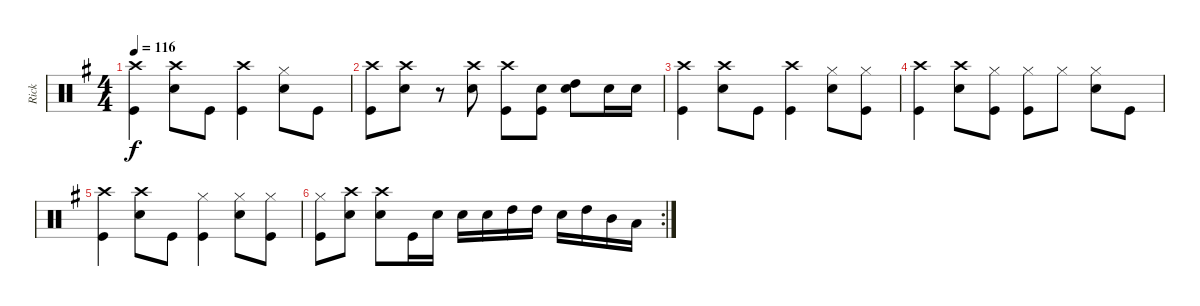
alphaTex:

\track ("Rick" "Rick") {instrument percussion}
\staff {score}
\articulation defaults
\ts (4 4)
\tempo 116
\clef neutral
\ks g
("Crash high (hit)" "Kick (hit)").4{dy f} ("Crash high (hit)" "Snare (hit) 2").8 "Kick (hit)".8 ("Crash high (hit)" "Kick (hit)").4 ("Hi-Hat (closed)" "Snare (hit) 2").8 "Kick (hit)".8 |
("Crash high (hit)" "Kick (hit)").8 ("Crash high (hit)" "Snare (hit) 2").8 r.8 ("Crash high (hit)" "Snare (hit) 2").8 ("Crash high (hit)" "Kick (hit)").8 ("Snare (hit) 2" "Kick (hit)").8 ("High Tom (hit)" "Snare (hit) 2").8 "Snare (hit) 2".16 "Snare (hit) 2".16 |
("Crash high (hit)" "Kick (hit)").4 ("Crash high (hit)" "Snare (hit) 2").8 "Kick (hit)".8 ("Crash high (hit)" "Kick (hit)").4 ("Hi-Hat (closed)" "Snare (hit) 2").8 ("Hi-Hat (closed)" "Kick (hit)").8 |
("Crash high (hit)" "Kick (hit)").4 ("Crash high (hit)" "Snare (hit) 2").8 ("Hi-Hat (closed)" "Kick (hit)").8 ("Hi-Hat (closed)" "Kick (hit)").8 "Hi-Hat (closed)".8 ("Hi-Hat (closed)" "Snare (hit) 2").8 "Kick (hit)".8 |
("Crash high (hit)" "Kick (hit)").4 ("Crash high (hit)" "Snare (hit) 2").8 "Kick (hit)".8 ("Hi-Hat (closed)" "Kick (hit)").4 ("Hi-Hat (closed)" "Snare (hit) 2").8 ("Hi-Hat (closed)" "Kick (hit)").8 |
\rc 2
("Hi-Hat (closed)" "Kick (hit)").8 ("Crash high (hit)" "Snare (hit) 2").8 ("Crash high (hit)" "Snare (hit) 2").8 "Kick (hit)".16 "Snare (hit) 2".16 "Snare (hit) 2".16 "Snare (hit) 2".16 "High Tom (hit)".16 "High Tom (hit)".16 "Snare (hit) 2".16 "High Tom (hit)".16 "Mid Tom (hit)".16 "Low Tom (hit)".16
